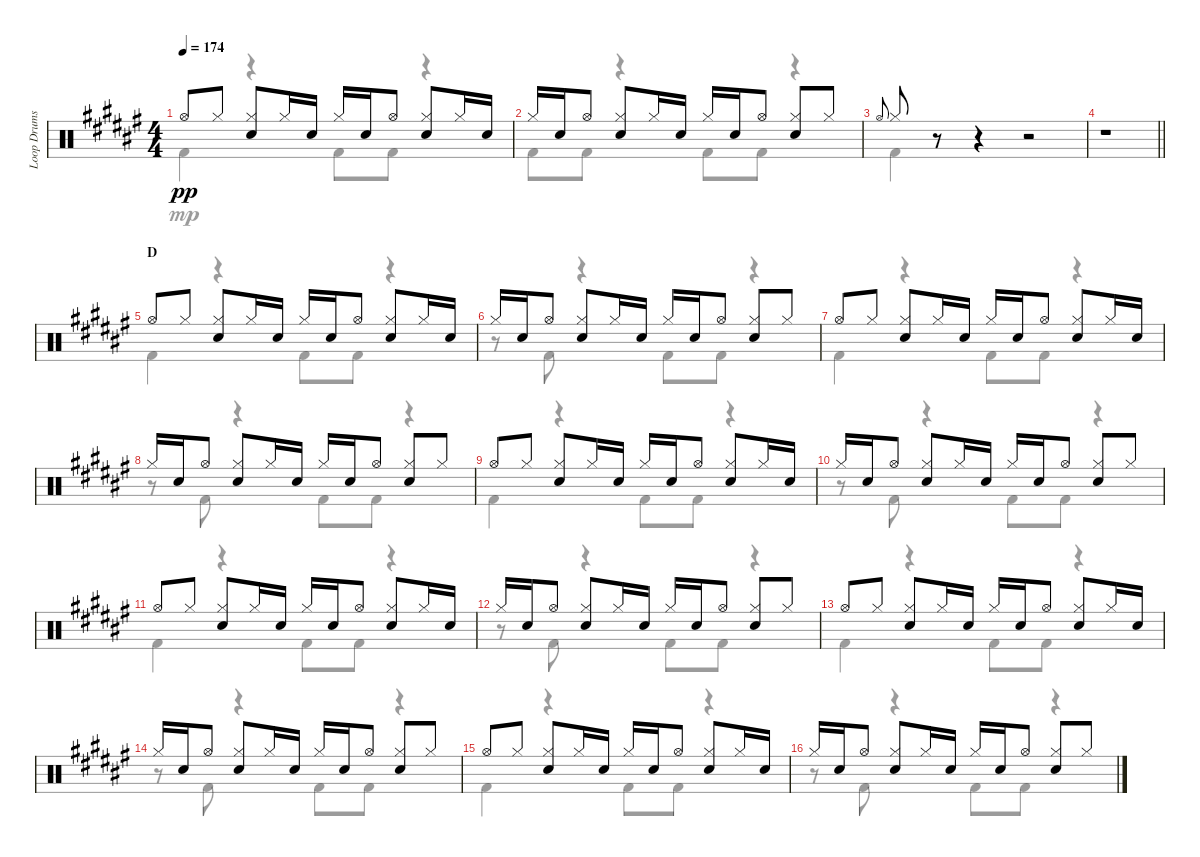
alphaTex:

\track ("Loop Drums" "Loop Drums") {instrument percussion}
\staff {score}
\articulation defaults
\voice
\ts (4 4)
\tempo 174
\clef neutral
\ks f# "Hi-Hat (open)".8{dy pp} "Hi-Hat (closed)".8
("Hi-Hat (closed)" "Electric Snare (hit)").8 "Hi-Hat (closed)".16 "Electric Snare (hit)".16 "Hi-Hat (closed)".16 "Electric Snare (hit)".16 "Hi-Hat (open)".8 ("Hi-Hat (closed)" "Electric Snare (hit)").8 "Hi-Hat (closed)".16 "Electric Snare (hit)".16 |
"Hi-Hat (closed)".16 "Electric Snare (hit)".16 "Hi-Hat (open)".8 ("Hi-Hat (closed)" "Electric Snare (hit)").8 "Hi-Hat (closed)".16 "Electric Snare (hit)".16 "Hi-Hat (closed)".16 "Electric Snare (hit)".16 "Hi-Hat (open)".8 ("Hi-Hat (closed)" "Electric Snare (hit)").8 "Hi-Hat (closed)".8 |
"Hi-Hat (open)".8{gr onbeat} "Hi-Hat (closed)".8 r.8 r.4 r.2 |
\barLineRight lightlight
r.1 |
\section ("" "D")
"Hi-Hat (open)".8 "Hi-Hat (closed)".8 ("Hi-Hat (closed)" "Electric Snare (hit)").8 "Hi-Hat (closed)".16 "Electric Snare (hit)".16 "Hi-Hat (closed)".16 "Electric Snare (hit)".16 "Hi-Hat (open)".8 ("Hi-Hat (closed)" "Electric Snare (hit)").8 "Hi-Hat (closed)".16 "Electric Snare (hit)".16 |
"Hi-Hat (closed)".16 "Electric Snare (hit)".16 "Hi-Hat (open)".8 ("Hi-Hat (closed)" "Electric Snare (hit)").8 "Hi-Hat (closed)".16 "Electric Snare (hit)".16 "Hi-Hat (closed)".16 "Electric Snare (hit)".16 "Hi-Hat (open)".8 ("Hi-Hat (closed)" "Electric Snare (hit)").8 "Hi-Hat (closed)".8 |
"Hi-Hat (open)".8 "Hi-Hat (closed)".8 ("Hi-Hat (closed)" "Electric Snare (hit)").8 "Hi-Hat (closed)".16 "Electric Snare (hit)".16 "Hi-Hat (closed)".16 "Electric Snare (hit)".16 "Hi-Hat (open)".8 ("Hi-Hat (closed)" "Electric Snare (hit)").8 "Hi-Hat (closed)".16 "Electric Snare (hit)".16 |
"Hi-Hat (closed)".16 "Electric Snare (hit)".16 "Hi-Hat (open)".8 ("Hi-Hat (closed)" "Electric Snare (hit)").8 "Hi-Hat (closed)".16 "Electric Snare (hit)".16 "Hi-Hat (closed)".16 "Electric Snare (hit)".16 "Hi-Hat (open)".8 ("Hi-Hat (closed)" "Electric Snare (hit)").8 "Hi-Hat (closed)".8 |
"Hi-Hat (open)".8 "Hi-Hat (closed)".8 ("Hi-Hat (closed)" "Electric Snare (hit)").8 "Hi-Hat (closed)".16 "Electric Snare (hit)".16 "Hi-Hat (closed)".16 "Electric Snare (hit)".16 "Hi-Hat (open)".8 ("Hi-Hat (closed)" "Electric Snare (hit)").8 "Hi-Hat (closed)".16 "Electric Snare (hit)".16 |
"Hi-Hat (closed)".16 "Electric Snare (hit)".16 "Hi-Hat (open)".8 ("Hi-Hat (closed)" "Electric Snare (hit)").8 "Hi-Hat (closed)".16 "Electric Snare (hit)".16 "Hi-Hat (closed)".16 "Electric Snare (hit)".16 "Hi-Hat (open)".8 ("Hi-Hat (closed)" "Electric Snare (hit)").8 "Hi-Hat (closed)".8 |
"Hi-Hat (open)".8 "Hi-Hat (closed)".8 ("Hi-Hat (closed)" "Electric Snare (hit)").8 "Hi-Hat (closed)".16 "Electric Snare (hit)".16 "Hi-Hat (closed)".16 "Electric Snare (hit)".16 "Hi-Hat (open)".8 ("Hi-Hat (closed)" "Electric Snare (hit)").8 "Hi-Hat (closed)".16 "Electric Snare (hit)".16 |
"Hi-Hat (closed)".16 "Electric Snare (hit)".16 "Hi-Hat (open)".8 ("Hi-Hat (closed)" "Electric Snare (hit)").8 "Hi-Hat (closed)".16 "Electric Snare (hit)".16 "Hi-Hat (closed)".16 "Electric Snare (hit)".16 "Hi-Hat (open)".8 ("Hi-Hat (closed)" "Electric Snare (hit)").8 "Hi-Hat (closed)".8 |
"Hi-Hat (open)".8 "Hi-Hat (closed)".8 ("Hi-Hat (closed)" "Electric Snare (hit)").8 "Hi-Hat (closed)".16 "Electric Snare (hit)".16 "Hi-Hat (closed)".16 "Electric Snare (hit)".16 "Hi-Hat (open)".8 ("Hi-Hat (closed)" "Electric Snare (hit)").8 "Hi-Hat (closed)".16 "Electric Snare (hit)".16 |
"Hi-Hat (closed)".16 "Electric Snare (hit)".16 "Hi-Hat (open)".8 ("Hi-Hat (closed)" "Electric Snare (hit)").8 "Hi-Hat (closed)".16 "Electric Snare (hit)".16 "Hi-Hat (closed)".16 "Electric Snare (hit)".16 "Hi-Hat (open)".8 ("Hi-Hat (closed)" "Electric Snare (hit)").8 "Hi-Hat (closed)".8 |
"Hi-Hat (open)".8 "Hi-Hat (closed)".8 ("Hi-Hat (closed)" "Electric Snare (hit)").8 "Hi-Hat (closed)".16 "Electric Snare (hit)".16 "Hi-Hat (closed)".16 "Electric Snare (hit)".16 "Hi-Hat (open)".8 ("Hi-Hat (closed)" "Electric Snare (hit)").8 "Hi-Hat (closed)".16 "Electric Snare (hit)".16 |
"Hi-Hat (closed)".16 "Electric Snare (hit)".16 "Hi-Hat (open)".8 ("Hi-Hat (closed)" "Electric Snare (hit)").8 "Hi-Hat (closed)".16 "Electric Snare (hit)".16 "Hi-Hat (closed)".16 "Electric Snare (hit)".16 "Hi-Hat (open)".8 ("Hi-Hat (closed)" "Electric Snare (hit)").8 "Hi-Hat (closed)".8
\voice
\clef neutral
\ottava regular
\simile none
\ks f# "Kick (hit) 2".4{dy mp}
r.4 "Kick (hit) 2".8 "Kick (hit) 2".8 r.4 |
"Kick (hit) 2".8 "Kick (hit) 2".8 r.4 "Kick (hit) 2".8 "Kick (hit) 2".8 r.4 |
"Kick (hit) 2".4 r.4 r.2 |
\barLineRight lightlight
r.1 |
"Kick (hit) 2".4 r.4 "Kick (hit) 2".8 "Kick (hit) 2".8 r.4 |
r.8 "Kick (hit) 2".8 r.4 "Kick (hit) 2".8 "Kick (hit) 2".8 r.4 |
"Kick (hit) 2".4 r.4 "Kick (hit) 2".8 "Kick (hit) 2".8 r.4 |
r.8 "Kick (hit) 2".8 r.4 "Kick (hit) 2".8 "Kick (hit) 2".8 r.4 |
"Kick (hit) 2".4 r.4 "Kick (hit) 2".8 "Kick (hit) 2".8 r.4 |
r.8 "Kick (hit) 2".8 r.4 "Kick (hit) 2".8 "Kick (hit) 2".8 r.4 |
"Kick (hit) 2".4 r.4 "Kick (hit) 2".8 "Kick (hit) 2".8 r.4 |
r.8 "Kick (hit) 2".8 r.4 "Kick (hit) 2".8 "Kick (hit) 2".8 r.4 |
"Kick (hit) 2".4 r.4 "Kick (hit) 2".8 "Kick (hit) 2".8 r.4 |
r.8 "Kick (hit) 2".8 r.4 "Kick (hit) 2".8 "Kick (hit) 2".8 r.4 |
"Kick (hit) 2".4 r.4 "Kick (hit) 2".8 "Kick (hit) 2".8 r.4 |
r.8 "Kick (hit) 2".8 r.4 "Kick (hit) 2".8 "Kick (hit) 2".8 r.4
